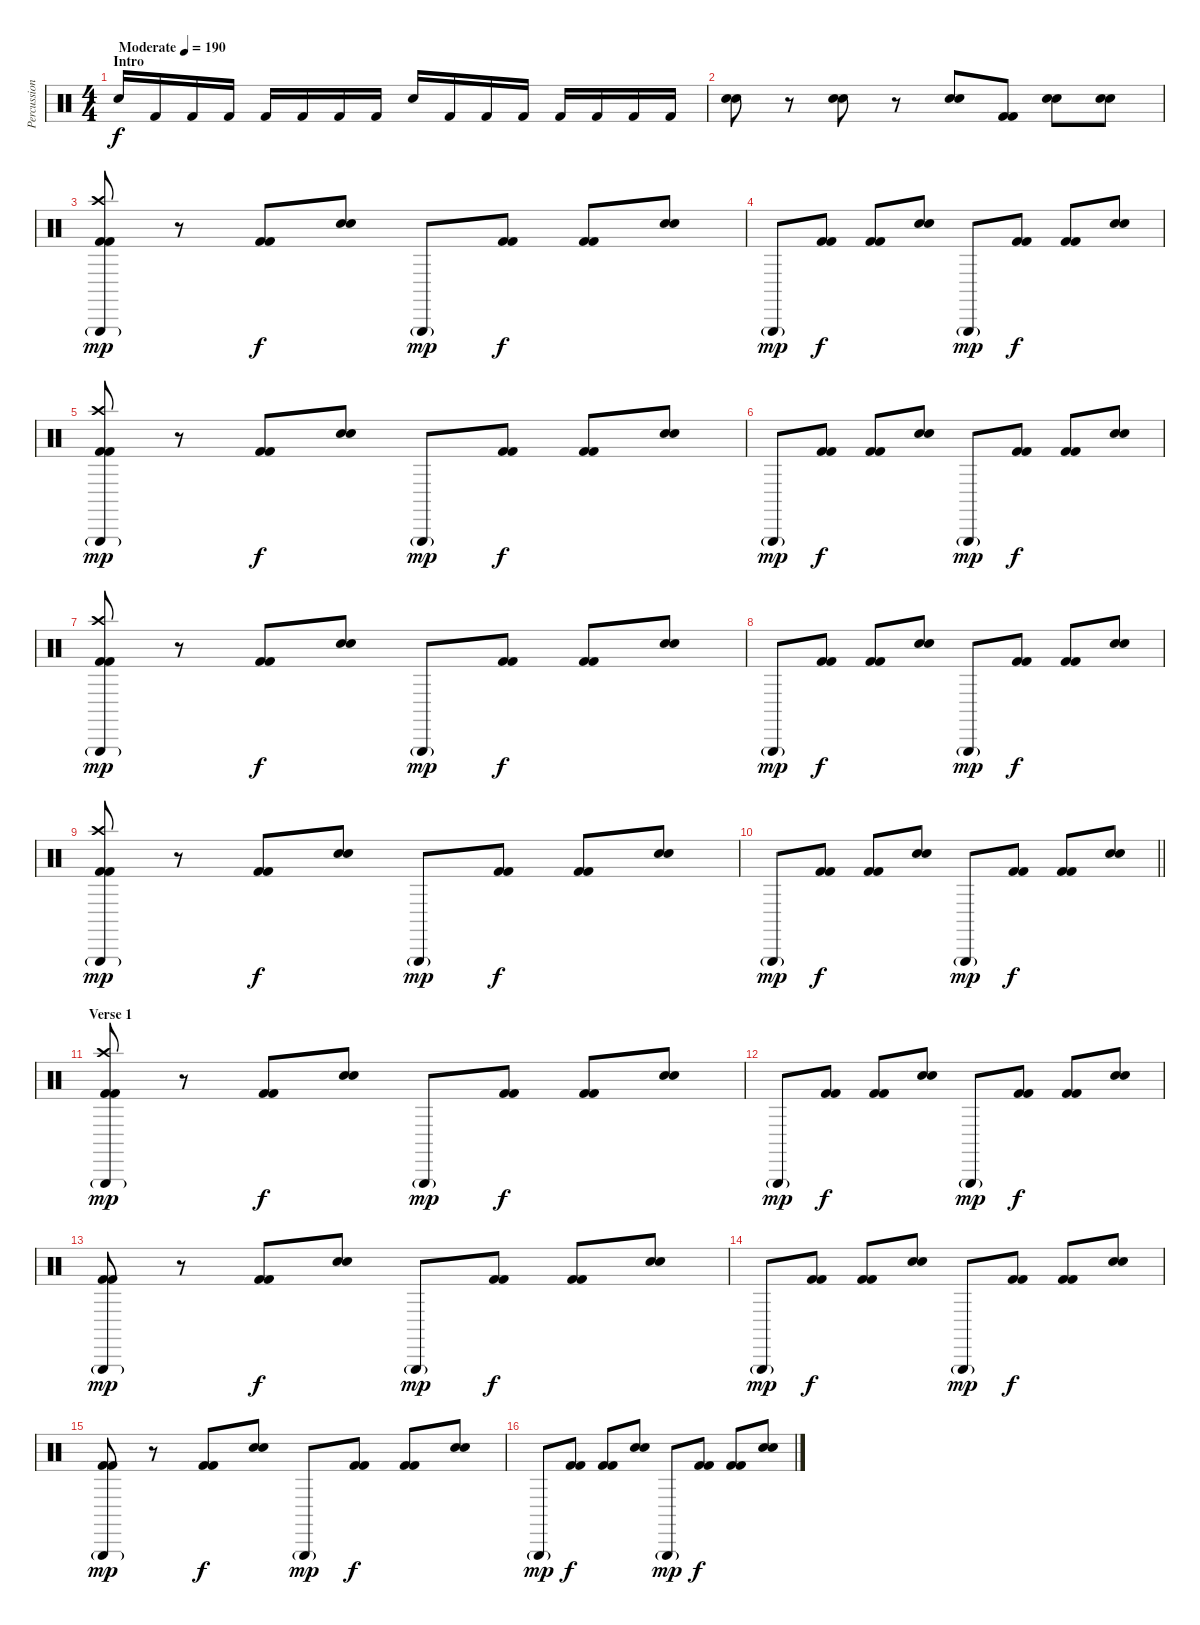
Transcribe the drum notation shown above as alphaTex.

\track ("Percussions" "Percussion") {instrument percussion}
\staff {score}
\articulation defaults
\ts (4 4)
\section ("" "Intro")
\tempo (190 "Moderate")
\clef neutral
\ks c "Electric Snare (hit)".16{dy f} "Kick (hit) 2".16 "Kick (hit) 2".16 "Kick (hit) 2".16 "Kick (hit) 2".16 "Kick (hit) 2".16 "Kick (hit) 2".16 "Kick (hit) 2".16 "Electric Snare (hit)".16 "Kick (hit) 2".16 "Kick (hit) 2".16 "Kick (hit) 2".16 "Kick (hit) 2".16 "Kick (hit) 2".16 "Kick (hit) 2".16 "Kick (hit) 2".16
|
("Snare (hit) 2" "Snare (hit) 2").8 r.8 ("Snare (hit) 2" "Snare (hit) 2").8 r.8 ("Snare (hit) 2" "Snare (hit) 2").8 ("Kick (hit) 2" "Kick (hit) 2").8 ("Snare (hit) 2" "Snare (hit) 2").8 ("Snare (hit) 2" "Snare (hit) 2").8 |
("Kick (hit) 2" "Kick (hit) 2" "Crash high (hit)" "Triangle (hit)"{g}).8{dy mp} r.8 ("Kick (hit) 2" "Kick (hit) 2").8{dy f} ("Snare (hit) 2" "Snare (hit) 2").8 "Triangle (hit)"{g}.8{dy mp} ("Kick (hit) 2" "Kick (hit) 2").8{dy f} ("Kick (hit) 2" "Kick (hit) 2").8 ("Snare (hit) 2" "Snare (hit) 2").8 |
"Triangle (hit)"{g}.8{dy mp} ("Kick (hit) 2" "Kick (hit) 2").8{dy f} ("Kick (hit) 2" "Kick (hit) 2").8 ("Snare (hit) 2" "Snare (hit) 2").8 "Triangle (hit)"{g}.8{dy mp} ("Kick (hit) 2" "Kick (hit) 2").8{dy f} ("Kick (hit) 2" "Kick (hit) 2").8 ("Snare (hit) 2" "Snare (hit) 2").8 |
("Kick (hit) 2" "Kick (hit) 2" "Crash high (hit)" "Triangle (hit)"{g}).8{dy mp} r.8 ("Kick (hit) 2" "Kick (hit) 2").8{dy f} ("Snare (hit) 2" "Snare (hit) 2").8 "Triangle (hit)"{g}.8{dy mp} ("Kick (hit) 2" "Kick (hit) 2").8{dy f} ("Kick (hit) 2" "Kick (hit) 2").8 ("Snare (hit) 2" "Snare (hit) 2").8 |
"Triangle (hit)"{g}.8{dy mp} ("Kick (hit) 2" "Kick (hit) 2").8{dy f} ("Kick (hit) 2" "Kick (hit) 2").8 ("Snare (hit) 2" "Snare (hit) 2").8 "Triangle (hit)"{g}.8{dy mp} ("Kick (hit) 2" "Kick (hit) 2").8{dy f} ("Kick (hit) 2" "Kick (hit) 2").8 ("Snare (hit) 2" "Snare (hit) 2").8 |
("Kick (hit) 2" "Kick (hit) 2" "Crash high (hit)" "Triangle (hit)"{g}).8{dy mp} r.8 ("Kick (hit) 2" "Kick (hit) 2").8{dy f} ("Snare (hit) 2" "Snare (hit) 2").8 "Triangle (hit)"{g}.8{dy mp} ("Kick (hit) 2" "Kick (hit) 2").8{dy f} ("Kick (hit) 2" "Kick (hit) 2").8 ("Snare (hit) 2" "Snare (hit) 2").8 |
"Triangle (hit)"{g}.8{dy mp} ("Kick (hit) 2" "Kick (hit) 2").8{dy f} ("Kick (hit) 2" "Kick (hit) 2").8 ("Snare (hit) 2" "Snare (hit) 2").8 "Triangle (hit)"{g}.8{dy mp} ("Kick (hit) 2" "Kick (hit) 2").8{dy f} ("Kick (hit) 2" "Kick (hit) 2").8 ("Snare (hit) 2" "Snare (hit) 2").8 |
("Kick (hit) 2" "Kick (hit) 2" "Crash high (hit)" "Triangle (hit)"{g}).8{dy mp} r.8 ("Kick (hit) 2" "Kick (hit) 2").8{dy f} ("Snare (hit) 2" "Snare (hit) 2").8 "Triangle (hit)"{g}.8{dy mp} ("Kick (hit) 2" "Kick (hit) 2").8{dy f} ("Kick (hit) 2" "Kick (hit) 2").8 ("Snare (hit) 2" "Snare (hit) 2").8 |
\barLineRight lightlight "Triangle (hit)"{g}.8{dy mp}
("Kick (hit) 2" "Kick (hit) 2").8{dy f} ("Kick (hit) 2" "Kick (hit) 2").8 ("Snare (hit) 2" "Snare (hit) 2").8 "Triangle (hit)"{g}.8{dy mp} ("Kick (hit) 2" "Kick (hit) 2").8{dy f} ("Kick (hit) 2" "Kick (hit) 2").8 ("Snare (hit) 2" "Snare (hit) 2").8 |
\section ("" "Verse 1")
("Kick (hit) 2" "Kick (hit) 2" "Crash high (hit)" "Triangle (hit)"{g}).8{dy mp} r.8 ("Kick (hit) 2" "Kick (hit) 2").8{dy f} ("Snare (hit) 2" "Snare (hit) 2").8 "Triangle (hit)"{g}.8{dy mp} ("Kick (hit) 2" "Kick (hit) 2").8{dy f} ("Kick (hit) 2" "Kick (hit) 2").8 ("Snare (hit) 2" "Snare (hit) 2").8 |
"Triangle (hit)"{g}.8{dy mp} ("Kick (hit) 2" "Kick (hit) 2").8{dy f} ("Kick (hit) 2" "Kick (hit) 2").8 ("Snare (hit) 2" "Snare (hit) 2").8 "Triangle (hit)"{g}.8{dy mp} ("Kick (hit) 2" "Kick (hit) 2").8{dy f} ("Kick (hit) 2" "Kick (hit) 2").8 ("Snare (hit) 2" "Snare (hit) 2").8 |
("Kick (hit) 2" "Kick (hit) 2" "Triangle (hit)"{g}).8{dy mp} r.8 ("Kick (hit) 2" "Kick (hit) 2").8{dy f} ("Snare (hit) 2" "Snare (hit) 2").8 "Triangle (hit)"{g}.8{dy mp} ("Kick (hit) 2" "Kick (hit) 2").8{dy f} ("Kick (hit) 2" "Kick (hit) 2").8 ("Snare (hit) 2" "Snare (hit) 2").8 |
"Triangle (hit)"{g}.8{dy mp} ("Kick (hit) 2" "Kick (hit) 2").8{dy f} ("Kick (hit) 2" "Kick (hit) 2").8 ("Snare (hit) 2" "Snare (hit) 2").8 "Triangle (hit)"{g}.8{dy mp} ("Kick (hit) 2" "Kick (hit) 2").8{dy f} ("Kick (hit) 2" "Kick (hit) 2").8 ("Snare (hit) 2" "Snare (hit) 2").8 |
("Kick (hit) 2" "Kick (hit) 2" "Triangle (hit)"{g}).8{dy mp} r.8 ("Kick (hit) 2" "Kick (hit) 2").8{dy f} ("Snare (hit) 2" "Snare (hit) 2").8 "Triangle (hit)"{g}.8{dy mp} ("Kick (hit) 2" "Kick (hit) 2").8{dy f} ("Kick (hit) 2" "Kick (hit) 2").8 ("Snare (hit) 2" "Snare (hit) 2").8 |
"Triangle (hit)"{g}.8{dy mp} ("Kick (hit) 2" "Kick (hit) 2").8{dy f} ("Kick (hit) 2" "Kick (hit) 2").8 ("Snare (hit) 2" "Snare (hit) 2").8 "Triangle (hit)"{g}.8{dy mp} ("Kick (hit) 2" "Kick (hit) 2").8{dy f} ("Kick (hit) 2" "Kick (hit) 2").8 ("Snare (hit) 2" "Snare (hit) 2").8
